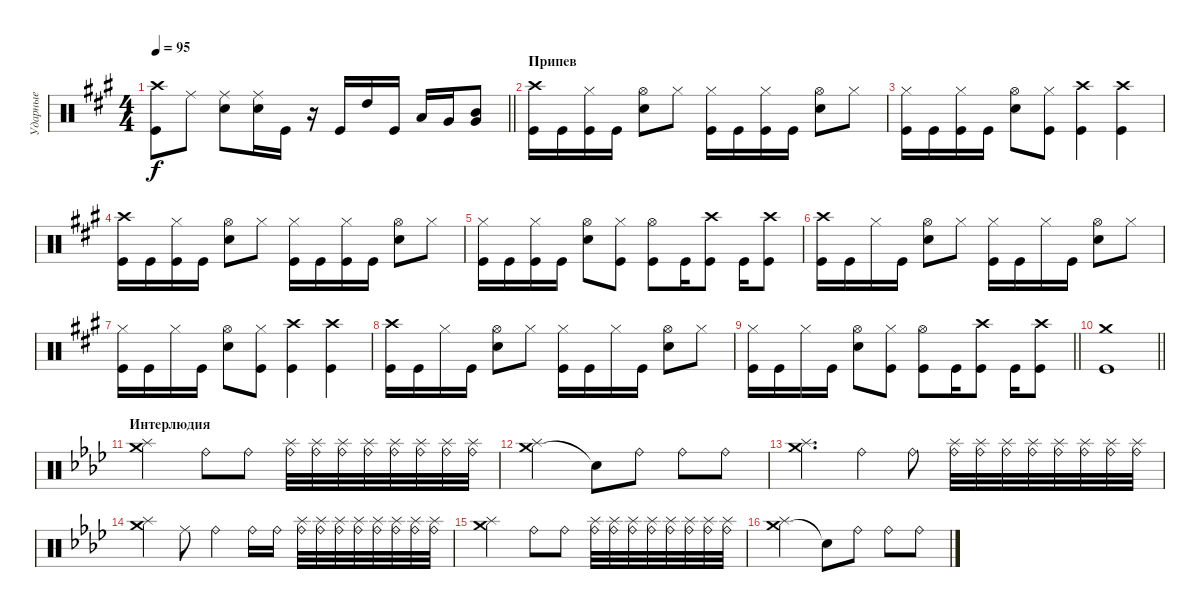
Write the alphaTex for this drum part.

\track ("Ударные" "Ударные") {instrument percussion}
\staff {score}
\articulation defaults
\ts (4 4)
\tempo 95
\clef neutral
\barLineRight lightlight
\ks a
("Crash high (hit)" "Kick (hit)").8{dy f} "Ride (middle)".8 ("Ride (middle)" "Snare (hit) 2").8 ("Ride (middle)" "Snare (hit) 2").16 "Kick (hit)".16 r.16 "Kick (hit)".16 "High Tom (hit)".16 "Kick (hit)".16 "Low Tom (hit)".16 "Very Low Tom (hit)".16 ("Very Low Tom (hit)" "Mid Tom (hit)").8 |
\section ("" "Припев")
("Crash high (hit)" "Kick (hit)").16 "Kick (hit)".16 ("Hi-Hat (closed)" "Kick (hit)").16 "Kick (hit)".16 ("Hi-Hat (open)" "Snare (hit) 2").8 "Hi-Hat (closed)".8 ("Hi-Hat (closed)" "Kick (hit)").16 "Kick (hit)".16 ("Hi-Hat (closed)" "Kick (hit)").16 "Kick (hit)".16 ("Hi-Hat (open)" "Snare (hit) 2").8 "Hi-Hat (closed)".8 |
("Hi-Hat (closed)" "Kick (hit)").16 "Kick (hit)".16 ("Hi-Hat (closed)" "Kick (hit)").16 "Kick (hit)".16 ("Hi-Hat (open)" "Snare (hit) 2").8 ("Hi-Hat (closed)" "Kick (hit)").8 ("Crash high (hit)" "Kick (hit)").4 ("Crash high (hit)" "Kick (hit)").4 |
("Crash high (hit)" "Kick (hit)").16 "Kick (hit)".16 ("Hi-Hat (closed)" "Kick (hit)").16 "Kick (hit)".16 ("Hi-Hat (open)" "Snare (hit) 2").8 "Hi-Hat (closed)".8 ("Hi-Hat (closed)" "Kick (hit)").16 "Kick (hit)".16 ("Hi-Hat (closed)" "Kick (hit)").16 "Kick (hit)".16 ("Hi-Hat (open)" "Snare (hit) 2").8 "Hi-Hat (closed)".8 |
("Hi-Hat (closed)" "Kick (hit)").16 "Kick (hit)".16 ("Hi-Hat (closed)" "Kick (hit)").16 "Kick (hit)".16 ("Hi-Hat (open)" "Snare (hit) 2").8 ("Hi-Hat (closed)" "Kick (hit)").8 ("Hi-Hat (open)" "Kick (hit)").8 "Kick (hit)".16 ("Crash high (hit)" "Kick (hit)").8 "Kick (hit)".16 ("Crash high (hit)" "Kick (hit)").8 |
("Crash high (hit)" "Kick (hit)").16 "Kick (hit)".16 "Hi-Hat (closed)".16 "Kick (hit)".16 ("Hi-Hat (open)" "Snare (hit) 2").8 "Hi-Hat (closed)".8 ("Hi-Hat (closed)" "Kick (hit)").16 "Kick (hit)".16 "Hi-Hat (closed)".16 "Kick (hit)".16 ("Hi-Hat (open)" "Snare (hit) 2").8 "Hi-Hat (closed)".8 |
("Hi-Hat (closed)" "Kick (hit)").16 "Kick (hit)".16 "Hi-Hat (closed)".16 "Kick (hit)".16 ("Hi-Hat (open)" "Snare (hit) 2").8 ("Hi-Hat (closed)" "Kick (hit)").8 ("Crash high (hit)" "Kick (hit)").4 ("Crash high (hit)" "Kick (hit)").4 |
("Crash high (hit)" "Kick (hit)").16 "Kick (hit)".16 "Hi-Hat (closed)".16 "Kick (hit)".16 ("Hi-Hat (open)" "Snare (hit) 2").8 "Hi-Hat (closed)".8 ("Hi-Hat (closed)" "Kick (hit)").16 "Kick (hit)".16 "Hi-Hat (closed)".16 "Kick (hit)".16 ("Hi-Hat (open)" "Snare (hit) 2").8 "Hi-Hat (closed)".8 |
\barLineRight lightlight
("Hi-Hat (closed)" "Kick (hit)").16 "Kick (hit)".16 "Hi-Hat (closed)".16 "Kick (hit)".16 ("Hi-Hat (open)" "Snare (hit) 2").8 ("Hi-Hat (closed)" "Kick (hit)").8 ("Hi-Hat (open)" "Kick (hit)").8 "Kick (hit)".16 ("Crash high (hit)" "Kick (hit)").8 "Kick (hit)".16 ("Crash high (hit)" "Kick (hit)").8 |
\barLineRight lightlight
("Crash medium (hit)" "Kick (hit)").1 |
\section ("" "Интерлюдия")
\ks ab
("Crash medium (hit)" "Splash (hit)").2{volume 5} "Ride (bell)".8 "Ride (bell)".8 ("Ride (bell)" "Splash (hit)").32 ("Ride (bell)" "Splash (hit)").32 ("Ride (bell)" "Splash (hit)").32 ("Ride (bell)" "Splash (hit)").32 ("Ride (bell)" "Splash (hit)").32 ("Ride (bell)" "Splash (hit)").32 ("Ride (bell)" "Splash (hit)").32 ("Ride (bell)" "Splash (hit)").32 |
("Crash medium (hit)" "Splash (hit)").2 "Snare (hit)"{t}.8 "Ride (bell)".8 "Ride (bell)".8 "Ride (bell)".8 |
("Crash medium (hit)" "Splash (hit)").4{d} "Ride (bell)".4 "Ride (bell)".8 ("Ride (bell)" "Splash (hit)").32 ("Ride (bell)" "Splash (hit)").32 ("Ride (bell)" "Splash (hit)").32 ("Ride (bell)" "Splash (hit)").32 ("Ride (bell)" "Splash (hit)").32 ("Ride (bell)" "Splash (hit)").32 ("Ride (bell)" "Splash (hit)").32 ("Ride (bell)" "Splash (hit)").32 |
("Crash medium (hit)" "Splash (hit)").4 "Ride (middle)".8 "Ride (bell)".4 "Ride (bell)".16 "Ride (bell)".16 ("Ride (bell)" "Splash (hit)").32 ("Ride (bell)" "Splash (hit)").32 ("Ride (bell)" "Splash (hit)").32 ("Ride (bell)" "Splash (hit)").32 ("Ride (bell)" "Splash (hit)").32 ("Ride (bell)" "Splash (hit)").32 ("Ride (bell)" "Splash (hit)").32 ("Ride (bell)" "Splash (hit)").32 |
("Crash medium (hit)" "Splash (hit)").2 "Ride (bell)".8 "Ride (bell)".8 ("Ride (bell)" "Splash (hit)").32 ("Ride (bell)" "Splash (hit)").32 ("Ride (bell)" "Splash (hit)").32 ("Ride (bell)" "Splash (hit)").32 ("Ride (bell)" "Splash (hit)").32 ("Ride (bell)" "Splash (hit)").32 ("Ride (bell)" "Splash (hit)").32 ("Ride (bell)" "Splash (hit)").32 |
("Crash medium (hit)" "Splash (hit)").2 "Snare (hit)"{t}.8 "Ride (bell)".8 "Ride (bell)".8 "Ride (bell)".8
